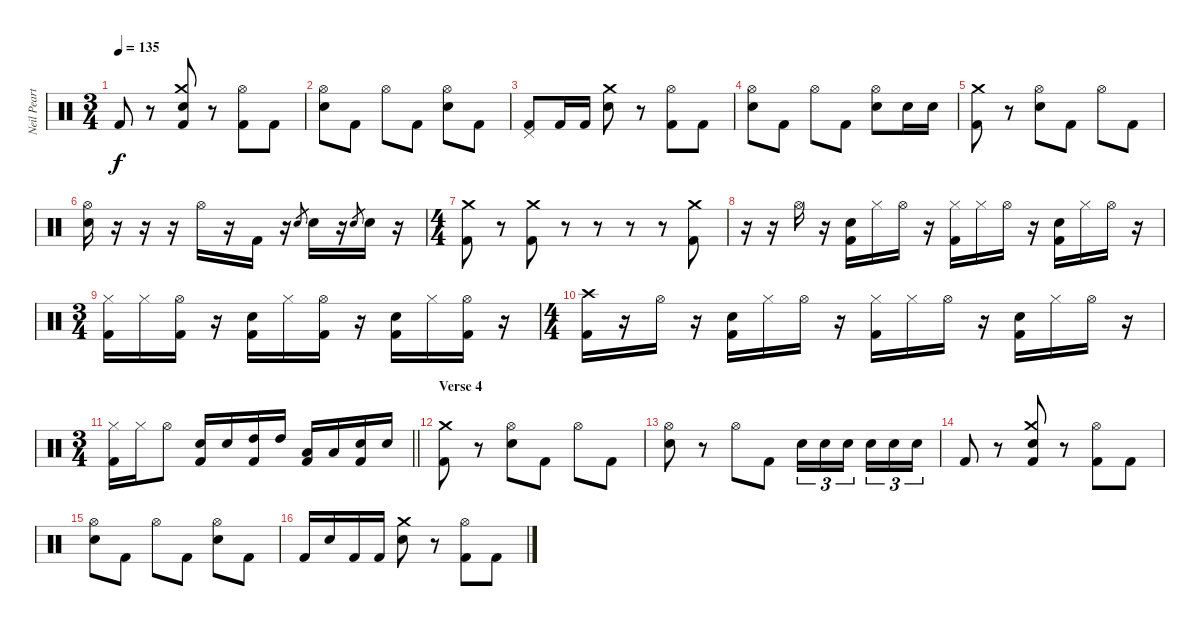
\track ("Neil Peart" "Neil Peart") {instrument percussion}
\staff {score}
\articulation defaults
\ts (3 4)
\tempo 135
\clef neutral
\ks c "Kick (hit) 2".8{dy f}
r.8 ("Crash medium (hit)" "Snare (hit) 2" "Kick (hit) 2").8 r.8 ("Hi-Hat (open)" "Kick (hit) 2").8 "Kick (hit) 2".8 |
("Hi-Hat (open)" "Snare (hit) 2").8 "Kick (hit) 2".8 "Hi-Hat (open)".8 "Kick (hit) 2".8 ("Hi-Hat (open)" "Snare (hit) 2").8 "Kick (hit) 2".8 |
("Pedal Hi-Hat (hit)" "Kick (hit) 2").8 "Kick (hit) 2".16 "Kick (hit) 2".16 ("Crash medium (hit)" "Snare (hit) 2").8 r.8 ("Hi-Hat (open)" "Kick (hit) 2").8 "Kick (hit) 2".8 |
("Hi-Hat (open)" "Snare (hit) 2").8 "Kick (hit) 2".8 "Hi-Hat (open)".8 "Kick (hit) 2".8 ("Hi-Hat (open)" "Snare (hit) 2").8 "Snare (hit) 2".16 "Snare (hit) 2".16 |
("Crash medium (hit)" "Kick (hit) 2").8 r.8 ("Hi-Hat (open)" "Snare (hit) 2").8 "Kick (hit) 2".8 "Hi-Hat (open)".8 "Kick (hit) 2".8 |
("Hi-Hat (open)" "Snare (hit) 2").16 r.16 r.16 r.16 "Hi-Hat (open)".16 r.16 "Kick (hit) 2".16 r.16 "Snare (hit) 2".8{gr} "Snare (hit) 2".16 r.16 "Snare (hit) 2".8{gr} "Snare (hit) 2".16 r.16 |
\ts (4 4)
("Crash medium (hit)" "Kick (hit) 2").8 r.8 ("Crash medium (hit)" "Kick (hit) 2").8 r.8 r.8 r.8 r.8 ("Crash medium (hit)" "Kick (hit) 2").8 |
r.16 r.16 "Hi-Hat (open)".16 r.16 ("Snare (hit) 2" "Kick (hit) 2").16 "Hi-Hat (closed)".16 "Hi-Hat (open)".16 r.16 ("Hi-Hat (closed)" "Kick (hit) 2").16 "Hi-Hat (closed)".16 "Hi-Hat (open)".16 r.16 ("Snare (hit) 2" "Kick (hit) 2").16 "Hi-Hat (closed)".16 "Hi-Hat (open)".16 r.16 |
\ts (3 4)
("Hi-Hat (closed)" "Kick (hit) 2").16 "Hi-Hat (closed)".16 ("Hi-Hat (open)" "Kick (hit) 2").16 r.16 ("Snare (hit) 2" "Kick (hit) 2").16 "Hi-Hat (closed)".16 ("Hi-Hat (open)" "Kick (hit) 2").16 r.16 ("Snare (hit) 2" "Kick (hit) 2").16 "Hi-Hat (closed)".16 ("Hi-Hat (open)" "Kick (hit) 2").16 r.16 |
\ts (4 4)
("Crash high (hit)" "Kick (hit) 2").16 r.16 "Hi-Hat (open)".16 r.16 ("Snare (hit) 2" "Kick (hit) 2").16 "Hi-Hat (closed)".16 "Hi-Hat (open)".16 r.16 ("Hi-Hat (closed)" "Kick (hit) 2").16 "Hi-Hat (closed)".16 "Hi-Hat (open)".16 r.16 ("Snare (hit) 2" "Kick (hit) 2").16 "Hi-Hat (closed)".16 "Hi-Hat (open)".16 r.16 |
\ts (3 4)
\barLineRight lightlight
("Hi-Hat (closed)" "Kick (hit) 2").16 "Hi-Hat (closed)".16 "Hi-Hat (open)".8 ("Snare (hit) 2" "Kick (hit) 2").16 "Snare (hit) 2".16 ("High Tom (hit)" "Kick (hit) 2").16 "High Tom (hit)".16 ("Low Tom (hit)" "Kick (hit) 2").16 "Low Tom (hit)".16 ("Snare (hit) 2" "Kick (hit) 2").16 "Snare (hit) 2".16 |
\section ("" "Verse 4")
("Crash medium (hit)" "Kick (hit) 2").8 r.8 ("Hi-Hat (open)" "Snare (hit) 2").8 "Kick (hit) 2".8 "Hi-Hat (open)".8 "Kick (hit) 2".8 |
("Hi-Hat (open)" "Snare (hit) 2").8 r.8 "Hi-Hat (open)".8 "Kick (hit) 2".8 "Snare (hit) 2".16{tu (3 2)} "Snare (hit) 2".16{tu (3 2)} "Snare (hit) 2".16{tu (3 2) beam splitsecondary} "Snare (hit) 2".16{tu (3 2)} "Snare (hit) 2".16{tu (3 2)} "Snare (hit) 2".16{tu (3 2)} |
"Kick (hit) 2".8 r.8 ("Crash medium (hit)" "Snare (hit) 2" "Kick (hit) 2").8 r.8 ("Hi-Hat (open)" "Kick (hit) 2").8 "Kick (hit) 2".8 |
("Hi-Hat (open)" "Snare (hit) 2").8 "Kick (hit) 2".8 "Hi-Hat (open)".8 "Kick (hit) 2".8 ("Hi-Hat (open)" "Snare (hit) 2").8 "Kick (hit) 2".8 |
"Kick (hit) 2".16 "Snare (hit) 2".16 "Kick (hit) 2".16 "Kick (hit) 2".16 ("Crash medium (hit)" "Snare (hit) 2").8 r.8 ("Hi-Hat (open)" "Kick (hit) 2").8 "Kick (hit) 2".8
